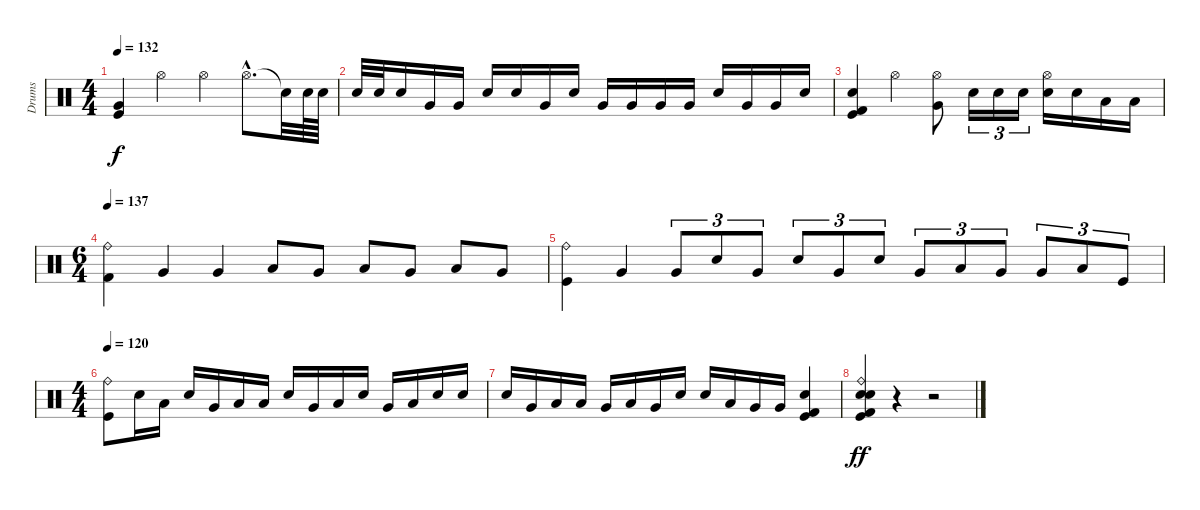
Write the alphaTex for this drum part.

\track ("Drums" "Drums") {instrument percussion}
\staff {score}
\articulation defaults
\ts (4 4)
\tempo 132
\clef neutral
\ks c
("Kick (hit)" "Very Low Tom (hit)").4{dy f} "Hi-Hat (open)".4 "Hi-Hat (open)".4 "Hi-Hat (open)"{hac}.8{d} "Snare (hit)"{t}.32 "Snare (hit) 2".64 "Snare (hit) 2".64 |
"Snare (hit) 2".32 "Snare (hit) 2".32 "Snare (hit) 2".16 "Very Low Tom (hit)".16 "Very Low Tom (hit)".16 "Snare (hit) 2".16 "Snare (hit) 2".16 "Very Low Tom (hit)".16 "Snare (hit) 2".16 "Very Low Tom (hit)".16 "Very Low Tom (hit)".16 "Very Low Tom (hit)".16 "Very Low Tom (hit)".16 "Snare (hit) 2".16 "Very Low Tom (hit)".16 "Very Low Tom (hit)".16 "Snare (hit) 2".16 |
("Kick (hit)" "Kick (hit) 2" "Snare (hit) 2").4 "Hi-Hat (open)".4 ("Very Low Tom (hit)" "Hi-Hat (open)").8 "Snare (hit) 2".16{tu (3 2)} "Snare (hit) 2".16{tu (3 2)} "Snare (hit) 2".16{tu (3 2)} ("Snare (hit) 2" "Hi-Hat (open)").16 "Snare (hit) 2".16 "Low Floor Tom (hit)".16 "Low Floor Tom (hit)".16 |
\ts (6 4)
\tempo 137
("Kick (hit) 2" "Ride (bell)").4 "Very Low Tom (hit)".4 "Very Low Tom (hit)".4 "Low Floor Tom (hit)".8 "Very Low Tom (hit)".8 "Low Floor Tom (hit)".8 "Very Low Tom (hit)".8 "Low Floor Tom (hit)".8 "Very Low Tom (hit)".8 |
("Kick (hit)" "Ride (bell)").4 "Very Low Tom (hit)".4 "Very Low Tom (hit)".8{tu (3 2)} "Snare (hit) 2".8{tu (3 2)} "Very Low Tom (hit)".8{tu (3 2)} "Snare (hit) 2".8{tu (3 2)} "Very Low Tom (hit)".8{tu (3 2)} "Snare (hit) 2".8{tu (3 2)} "Very Low Tom (hit)".8{tu (3 2)} "Low Tom (hit)".8{tu (3 2)} "Very Low Tom (hit)".8{tu (3 2)} "Very Low Tom (hit)".8{tu (3 2)} "Low Floor Tom (hit)".8{tu (3 2)} "Kick (hit)".8{tu (3 2)} |
\ts (4 4)
\tempo 120
("Kick (hit)" "Ride (bell)").8 "Snare (hit) 2".16 "Low Tom (hit)".16 "Snare (hit) 2".16 "Very Low Tom (hit)".16 "Low Floor Tom (hit)".16 "Low Tom (hit)".16 "Snare (hit) 2".16 "Very Low Tom (hit)".16 "Low Floor Tom (hit)".16 "Snare (hit) 2".16 "Very Low Tom (hit)".16 "Low Floor Tom (hit)".16 "Snare (hit) 2".16 "Snare (hit) 2".16 |
"Snare (hit) 2".16 "Very Low Tom (hit)".16 "Low Floor Tom (hit)".16 "Low Floor Tom (hit)".16 "Very Low Tom (hit)".16 "Low Tom (hit)".16 "Very Low Tom (hit)".16 "Snare (hit) 2".16 "Snare (hit) 2".16 "Low Tom (hit)".16 "Very Low Tom (hit)".16 "Very Low Tom (hit)".16 ("Kick (hit) 2" "Kick (hit)" "Snare (hit) 2").4 |
("Electric Snare (hit)" "Snare (hit) 2" "Kick (hit)" "Kick (hit) 2" "Ride (bell)").4{dy ff} r.4 r.2
